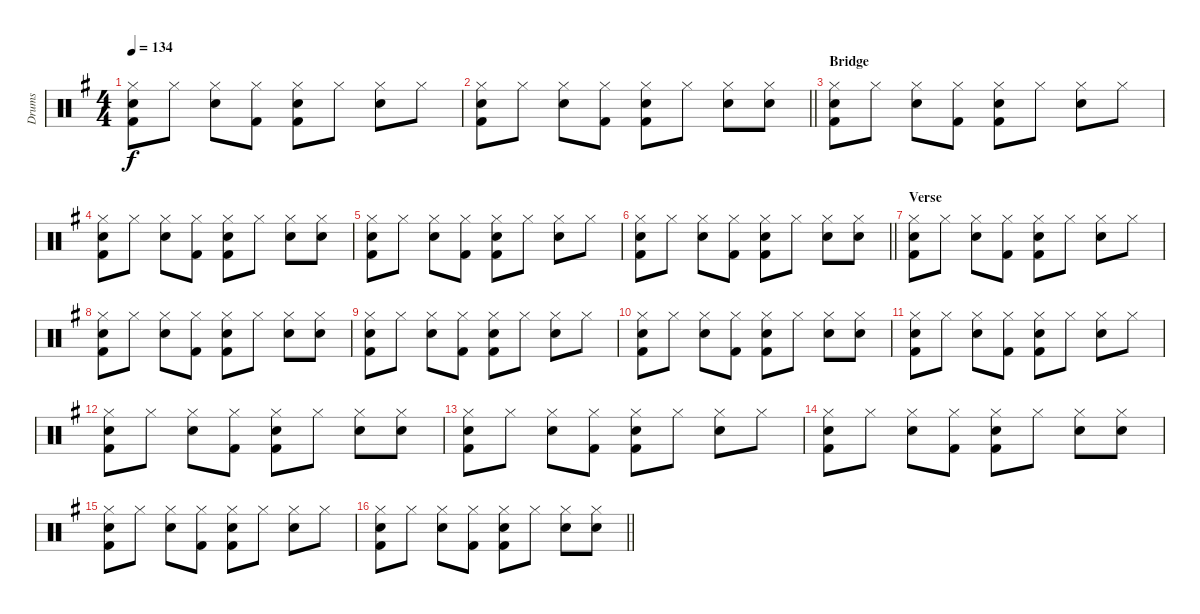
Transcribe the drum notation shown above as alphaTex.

\track ("Drums" "Drums") {instrument percussion}
\staff {score}
\articulation defaults
\ts (4 4)
\tempo 134
\clef neutral
\ks g
("Hi-Hat (closed)" "Electric Snare (hit)" "Kick (hit) 2").8{dy f} "Hi-Hat (closed)".8 ("Hi-Hat (closed)" "Electric Snare (hit)").8 ("Hi-Hat (closed)" "Kick (hit) 2").8 ("Hi-Hat (closed)" "Electric Snare (hit)" "Kick (hit) 2").8 "Hi-Hat (closed)".8 ("Hi-Hat (closed)" "Electric Snare (hit)").8 "Hi-Hat (closed)".8 |
\barLineRight lightlight
("Hi-Hat (closed)" "Electric Snare (hit)" "Kick (hit) 2").8 "Hi-Hat (closed)".8 ("Hi-Hat (closed)" "Electric Snare (hit)").8 ("Hi-Hat (closed)" "Kick (hit) 2").8 ("Hi-Hat (closed)" "Electric Snare (hit)" "Kick (hit) 2").8 "Hi-Hat (closed)".8 ("Hi-Hat (closed)" "Electric Snare (hit)").8 ("Hi-Hat (closed)" "Electric Snare (hit)").8 |
\section ("" "Bridge")
("Hi-Hat (closed)" "Electric Snare (hit)" "Kick (hit) 2").8 "Hi-Hat (closed)".8 ("Hi-Hat (closed)" "Electric Snare (hit)").8 ("Hi-Hat (closed)" "Kick (hit) 2").8 ("Hi-Hat (closed)" "Electric Snare (hit)" "Kick (hit) 2").8 "Hi-Hat (closed)".8 ("Hi-Hat (closed)" "Electric Snare (hit)").8 "Hi-Hat (closed)".8 |
("Hi-Hat (closed)" "Electric Snare (hit)" "Kick (hit) 2").8 "Hi-Hat (closed)".8 ("Hi-Hat (closed)" "Electric Snare (hit)").8 ("Hi-Hat (closed)" "Kick (hit) 2").8 ("Hi-Hat (closed)" "Electric Snare (hit)" "Kick (hit) 2").8 "Hi-Hat (closed)".8 ("Hi-Hat (closed)" "Electric Snare (hit)").8 ("Hi-Hat (closed)" "Electric Snare (hit)").8 |
("Hi-Hat (closed)" "Electric Snare (hit)" "Kick (hit) 2").8 "Hi-Hat (closed)".8 ("Hi-Hat (closed)" "Electric Snare (hit)").8 ("Hi-Hat (closed)" "Kick (hit) 2").8 ("Hi-Hat (closed)" "Electric Snare (hit)" "Kick (hit) 2").8 "Hi-Hat (closed)".8 ("Hi-Hat (closed)" "Electric Snare (hit)").8 "Hi-Hat (closed)".8 |
\barLineRight lightlight
("Hi-Hat (closed)" "Electric Snare (hit)" "Kick (hit) 2").8 "Hi-Hat (closed)".8 ("Hi-Hat (closed)" "Electric Snare (hit)").8 ("Hi-Hat (closed)" "Kick (hit) 2").8 ("Hi-Hat (closed)" "Electric Snare (hit)" "Kick (hit) 2").8 "Hi-Hat (closed)".8 ("Hi-Hat (closed)" "Electric Snare (hit)").8 ("Hi-Hat (closed)" "Electric Snare (hit)").8 |
\section ("" "Verse")
("Hi-Hat (closed)" "Electric Snare (hit)" "Kick (hit) 2").8 "Hi-Hat (closed)".8 ("Hi-Hat (closed)" "Electric Snare (hit)").8 ("Hi-Hat (closed)" "Kick (hit) 2").8 ("Hi-Hat (closed)" "Electric Snare (hit)" "Kick (hit) 2").8 "Hi-Hat (closed)".8 ("Hi-Hat (closed)" "Electric Snare (hit)").8 "Hi-Hat (closed)".8 |
("Hi-Hat (closed)" "Electric Snare (hit)" "Kick (hit) 2").8 "Hi-Hat (closed)".8 ("Hi-Hat (closed)" "Electric Snare (hit)").8 ("Hi-Hat (closed)" "Kick (hit) 2").8 ("Hi-Hat (closed)" "Electric Snare (hit)" "Kick (hit) 2").8 "Hi-Hat (closed)".8 ("Hi-Hat (closed)" "Electric Snare (hit)").8 ("Hi-Hat (closed)" "Electric Snare (hit)").8 |
("Hi-Hat (closed)" "Electric Snare (hit)" "Kick (hit) 2").8 "Hi-Hat (closed)".8 ("Hi-Hat (closed)" "Electric Snare (hit)").8 ("Hi-Hat (closed)" "Kick (hit) 2").8 ("Hi-Hat (closed)" "Electric Snare (hit)" "Kick (hit) 2").8 "Hi-Hat (closed)".8 ("Hi-Hat (closed)" "Electric Snare (hit)").8 "Hi-Hat (closed)".8 |
("Hi-Hat (closed)" "Electric Snare (hit)" "Kick (hit) 2").8 "Hi-Hat (closed)".8 ("Hi-Hat (closed)" "Electric Snare (hit)").8 ("Hi-Hat (closed)" "Kick (hit) 2").8 ("Hi-Hat (closed)" "Electric Snare (hit)" "Kick (hit) 2").8 "Hi-Hat (closed)".8 ("Hi-Hat (closed)" "Electric Snare (hit)").8 ("Hi-Hat (closed)" "Electric Snare (hit)").8 |
("Hi-Hat (closed)" "Electric Snare (hit)" "Kick (hit) 2").8 "Hi-Hat (closed)".8 ("Hi-Hat (closed)" "Electric Snare (hit)").8 ("Hi-Hat (closed)" "Kick (hit) 2").8 ("Hi-Hat (closed)" "Electric Snare (hit)" "Kick (hit) 2").8 "Hi-Hat (closed)".8 ("Hi-Hat (closed)" "Electric Snare (hit)").8 "Hi-Hat (closed)".8 |
("Hi-Hat (closed)" "Electric Snare (hit)" "Kick (hit) 2").8 "Hi-Hat (closed)".8 ("Hi-Hat (closed)" "Electric Snare (hit)").8 ("Hi-Hat (closed)" "Kick (hit) 2").8 ("Hi-Hat (closed)" "Electric Snare (hit)" "Kick (hit) 2").8 "Hi-Hat (closed)".8 ("Hi-Hat (closed)" "Electric Snare (hit)").8 ("Hi-Hat (closed)" "Electric Snare (hit)").8 |
("Hi-Hat (closed)" "Electric Snare (hit)" "Kick (hit) 2").8 "Hi-Hat (closed)".8 ("Hi-Hat (closed)" "Electric Snare (hit)").8 ("Hi-Hat (closed)" "Kick (hit) 2").8 ("Hi-Hat (closed)" "Electric Snare (hit)" "Kick (hit) 2").8 "Hi-Hat (closed)".8 ("Hi-Hat (closed)" "Electric Snare (hit)").8 "Hi-Hat (closed)".8 |
("Hi-Hat (closed)" "Electric Snare (hit)" "Kick (hit) 2").8 "Hi-Hat (closed)".8 ("Hi-Hat (closed)" "Electric Snare (hit)").8 ("Hi-Hat (closed)" "Kick (hit) 2").8 ("Hi-Hat (closed)" "Electric Snare (hit)" "Kick (hit) 2").8 "Hi-Hat (closed)".8 ("Hi-Hat (closed)" "Electric Snare (hit)").8 ("Hi-Hat (closed)" "Electric Snare (hit)").8 |
("Hi-Hat (closed)" "Electric Snare (hit)" "Kick (hit) 2").8 "Hi-Hat (closed)".8 ("Hi-Hat (closed)" "Electric Snare (hit)").8 ("Hi-Hat (closed)" "Kick (hit) 2").8 ("Hi-Hat (closed)" "Electric Snare (hit)" "Kick (hit) 2").8 "Hi-Hat (closed)".8 ("Hi-Hat (closed)" "Electric Snare (hit)").8 "Hi-Hat (closed)".8 |
\barLineRight lightlight
("Hi-Hat (closed)" "Electric Snare (hit)" "Kick (hit) 2").8 "Hi-Hat (closed)".8 ("Hi-Hat (closed)" "Electric Snare (hit)").8 ("Hi-Hat (closed)" "Kick (hit) 2").8 ("Hi-Hat (closed)" "Electric Snare (hit)" "Kick (hit) 2").8 "Hi-Hat (closed)".8 ("Hi-Hat (closed)" "Electric Snare (hit)").8 ("Hi-Hat (closed)" "Electric Snare (hit)").8
